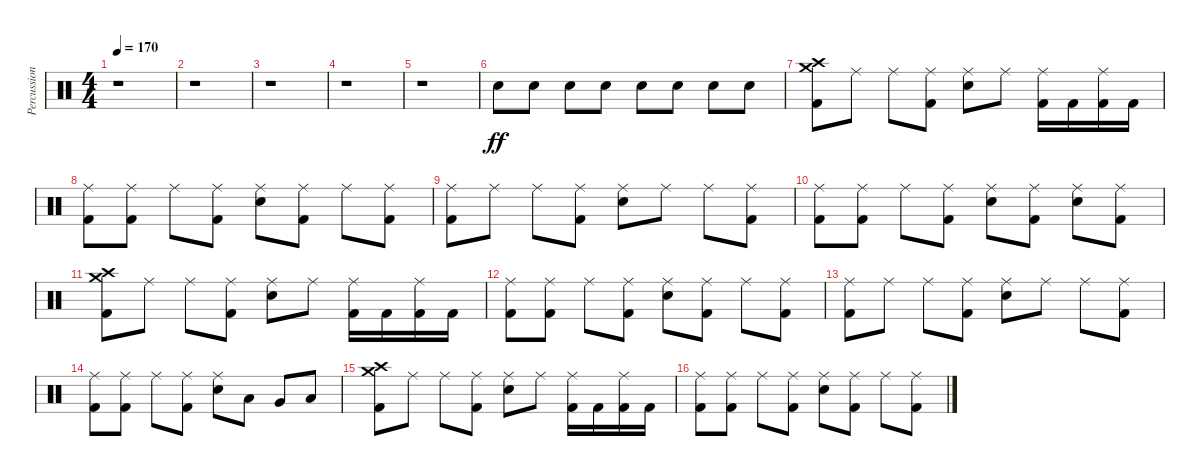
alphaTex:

\track ("Percussion" "Percussion") {instrument percussion}
\staff {score}
\articulation defaults
\ts (4 4)
\tempo 170
\clef neutral
\ks c
r.1{dy ff} |
r.1 |
r.1 |
r.1 |
r.1 |
"Electric Snare (hit)".8 "Electric Snare (hit)".8 "Electric Snare (hit)".8 "Electric Snare (hit)".8 "Electric Snare (hit)".8 "Electric Snare (hit)".8 "Electric Snare (hit)".8 "Electric Snare (hit)".8 |
("Kick (hit) 2" "Crash high (hit)" "Crash medium (hit)").8 "Ride (middle)".8 "Ride (middle)".8 ("Kick (hit) 2" "Ride (middle)").8 ("Electric Snare (hit)" "Ride (middle)").8 "Ride (middle)".8 ("Kick (hit) 2" "Ride (middle)").16 "Kick (hit) 2".16 ("Kick (hit) 2" "Ride (middle)").16 "Kick (hit) 2".16 |
("Kick (hit) 2" "Ride (middle)").8 ("Kick (hit) 2" "Ride (middle)").8 "Ride (middle)".8 ("Kick (hit) 2" "Ride (middle)").8 ("Electric Snare (hit)" "Ride (middle)").8 ("Kick (hit) 2" "Ride (middle)").8 "Ride (middle)".8 ("Kick (hit) 2" "Ride (middle)").8 |
("Kick (hit) 2" "Ride (middle)").8 "Ride (middle)".8 "Ride (middle)".8 ("Kick (hit) 2" "Ride (middle)").8 ("Electric Snare (hit)" "Ride (middle)").8 "Ride (middle)".8 "Ride (middle)".8 ("Kick (hit) 2" "Ride (middle)").8 |
("Kick (hit) 2" "Ride (middle)").8 ("Kick (hit) 2" "Ride (middle)").8 "Ride (middle)".8 ("Kick (hit) 2" "Ride (middle)").8 ("Electric Snare (hit)" "Ride (middle)").8 ("Kick (hit) 2" "Ride (middle)").8 ("Electric Snare (hit)" "Ride (middle)").8 ("Kick (hit) 2" "Ride (middle)").8 |
("Kick (hit) 2" "Crash high (hit)" "Crash medium (hit)").8 "Ride (middle)".8 "Ride (middle)".8 ("Kick (hit) 2" "Ride (middle)").8 ("Electric Snare (hit)" "Ride (middle)").8 "Ride (middle)".8 ("Kick (hit) 2" "Ride (middle)").16 "Kick (hit) 2".16 ("Kick (hit) 2" "Ride (middle)").16 "Kick (hit) 2".16 |
("Kick (hit) 2" "Ride (middle)").8 ("Kick (hit) 2" "Ride (middle)").8 "Ride (middle)".8 ("Kick (hit) 2" "Ride (middle)").8 ("Electric Snare (hit)" "Ride (middle)").8 ("Kick (hit) 2" "Ride (middle)").8 "Ride (middle)".8 ("Kick (hit) 2" "Ride (middle)").8 |
("Kick (hit) 2" "Ride (middle)").8 "Ride (middle)".8 "Ride (middle)".8 ("Kick (hit) 2" "Ride (middle)").8 ("Electric Snare (hit)" "Ride (middle)").8 "Ride (middle)".8 "Ride (middle)".8 ("Kick (hit) 2" "Ride (middle)").8 |
("Kick (hit) 2" "Ride (middle)").8 ("Kick (hit) 2" "Ride (middle)").8 "Ride (middle)".8 ("Kick (hit) 2" "Ride (middle)").8 ("Electric Snare (hit)" "Ride (middle)").8 "Low Tom (hit)".8 "Very Low Tom (hit)".8 "Low Floor Tom (hit)".8 |
("Kick (hit) 2" "Crash high (hit)" "Crash medium (hit)").8 "Ride (middle)".8 "Ride (middle)".8 ("Kick (hit) 2" "Ride (middle)").8 ("Electric Snare (hit)" "Ride (middle)").8 "Ride (middle)".8 ("Kick (hit) 2" "Ride (middle)").16 "Kick (hit) 2".16 ("Kick (hit) 2" "Ride (middle)").16 "Kick (hit) 2".16 |
("Kick (hit) 2" "Ride (middle)").8 ("Kick (hit) 2" "Ride (middle)").8 "Ride (middle)".8 ("Kick (hit) 2" "Ride (middle)").8 ("Electric Snare (hit)" "Ride (middle)").8 ("Kick (hit) 2" "Ride (middle)").8 "Ride (middle)".8 ("Kick (hit) 2" "Ride (middle)").8
